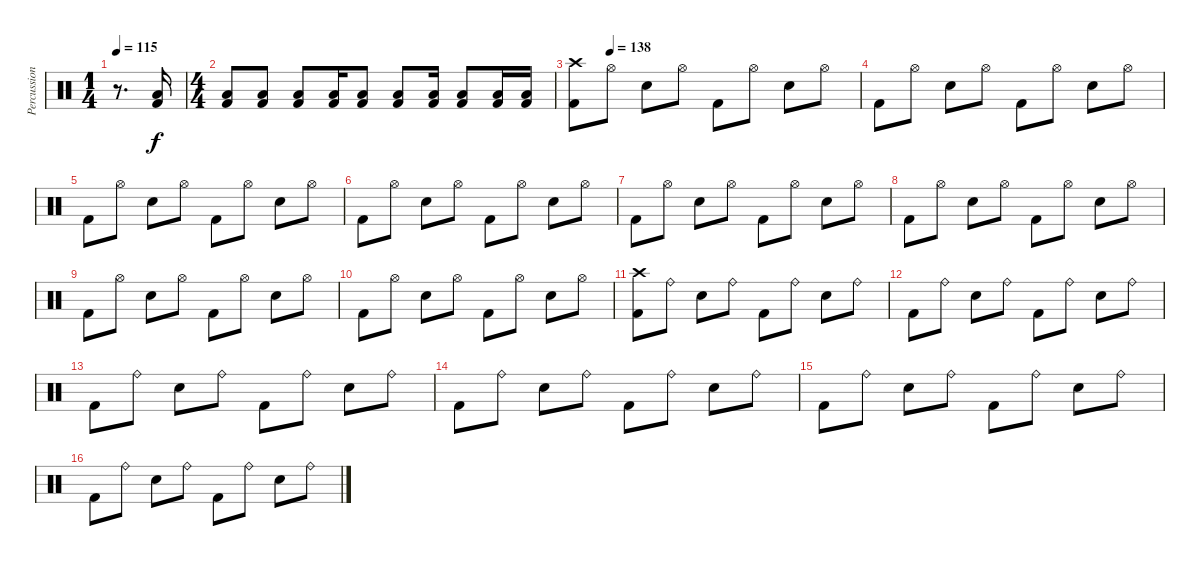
\track ("Percussions" "Percussion") {instrument percussion}
\staff {score}
\articulation defaults
\ts (1 4)
\tempo 115
\tempo 136
\tempo 115
\clef neutral
\ks c
r.8{d dy f} ("Low Floor Tom (hit)" "Kick (hit) 2").16 |
\ts (4 4)
("Low Tom (hit)" "Kick (hit) 2").8 ("Low Tom (hit)" "Kick (hit) 2").8 ("Low Floor Tom (hit)" "Kick (hit) 2").8 ("Low Floor Tom (hit)" "Kick (hit) 2").16 ("Low Tom (hit)" "Kick (hit) 2").8 ("Low Tom (hit)" "Kick (hit) 2").8 ("Low Floor Tom (hit)" "Kick (hit) 2").16 ("Low Tom (hit)" "Kick (hit) 2").8 ("Low Floor Tom (hit)" "Kick (hit) 2").16 ("Low Floor Tom (hit)" "Kick (hit) 2").16 |
\tempo (138 0.125)
("Crash high (hit)" "Kick (hit) 2").8 "Hi-Hat (open)".8 "Snare (hit) 2".8 "Hi-Hat (open)".8 "Kick (hit) 2".8 "Hi-Hat (open)".8 "Snare (hit) 2".8 "Hi-Hat (open)".8 |
"Kick (hit) 2".8 "Hi-Hat (open)".8 "Snare (hit) 2".8 "Hi-Hat (open)".8 "Kick (hit) 2".8 "Hi-Hat (open)".8 "Snare (hit) 2".8 "Hi-Hat (open)".8 |
"Kick (hit) 2".8 "Hi-Hat (open)".8 "Snare (hit) 2".8 "Hi-Hat (open)".8 "Kick (hit) 2".8 "Hi-Hat (open)".8 "Snare (hit) 2".8 "Hi-Hat (open)".8 |
"Kick (hit) 2".8 "Hi-Hat (open)".8 "Snare (hit) 2".8 "Hi-Hat (open)".8 "Kick (hit) 2".8 "Hi-Hat (open)".8 "Snare (hit) 2".8 "Hi-Hat (open)".8 |
"Kick (hit) 2".8 "Hi-Hat (open)".8 "Snare (hit) 2".8 "Hi-Hat (open)".8 "Kick (hit) 2".8 "Hi-Hat (open)".8 "Snare (hit) 2".8 "Hi-Hat (open)".8 |
"Kick (hit) 2".8 "Hi-Hat (open)".8 "Snare (hit) 2".8 "Hi-Hat (open)".8 "Kick (hit) 2".8 "Hi-Hat (open)".8 "Snare (hit) 2".8 "Hi-Hat (open)".8 |
"Kick (hit) 2".8 "Hi-Hat (open)".8 "Snare (hit) 2".8 "Hi-Hat (open)".8 "Kick (hit) 2".8 "Hi-Hat (open)".8 "Snare (hit) 2".8 "Hi-Hat (open)".8 |
"Kick (hit) 2".8 "Hi-Hat (open)".8 "Snare (hit) 2".8 "Hi-Hat (open)".8 "Kick (hit) 2".8 "Hi-Hat (open)".8 "Snare (hit) 2".8 "Hi-Hat (open)".8 |
("Crash high (hit)" "Kick (hit) 2").8 "Ride (bell)".8 "Snare (hit) 2".8 "Ride (bell)".8 "Kick (hit) 2".8 "Ride (bell)".8 "Snare (hit) 2".8 "Ride (bell)".8 |
"Kick (hit) 2".8 "Ride (bell)".8 "Snare (hit) 2".8 "Ride (bell)".8 "Kick (hit) 2".8 "Ride (bell)".8 "Snare (hit) 2".8 "Ride (bell)".8 |
"Kick (hit) 2".8 "Ride (bell)".8 "Snare (hit) 2".8 "Ride (bell)".8 "Kick (hit) 2".8 "Ride (bell)".8 "Snare (hit) 2".8 "Ride (bell)".8 |
"Kick (hit) 2".8 "Ride (bell)".8 "Snare (hit) 2".8 "Ride (bell)".8 "Kick (hit) 2".8 "Ride (bell)".8 "Snare (hit) 2".8 "Ride (bell)".8 |
"Kick (hit) 2".8 "Ride (bell)".8 "Snare (hit) 2".8 "Ride (bell)".8 "Kick (hit) 2".8 "Ride (bell)".8 "Snare (hit) 2".8 "Ride (bell)".8 |
"Kick (hit) 2".8 "Ride (bell)".8 "Snare (hit) 2".8 "Ride (bell)".8 "Kick (hit) 2".8 "Ride (bell)".8 "Snare (hit) 2".8 "Ride (bell)".8
